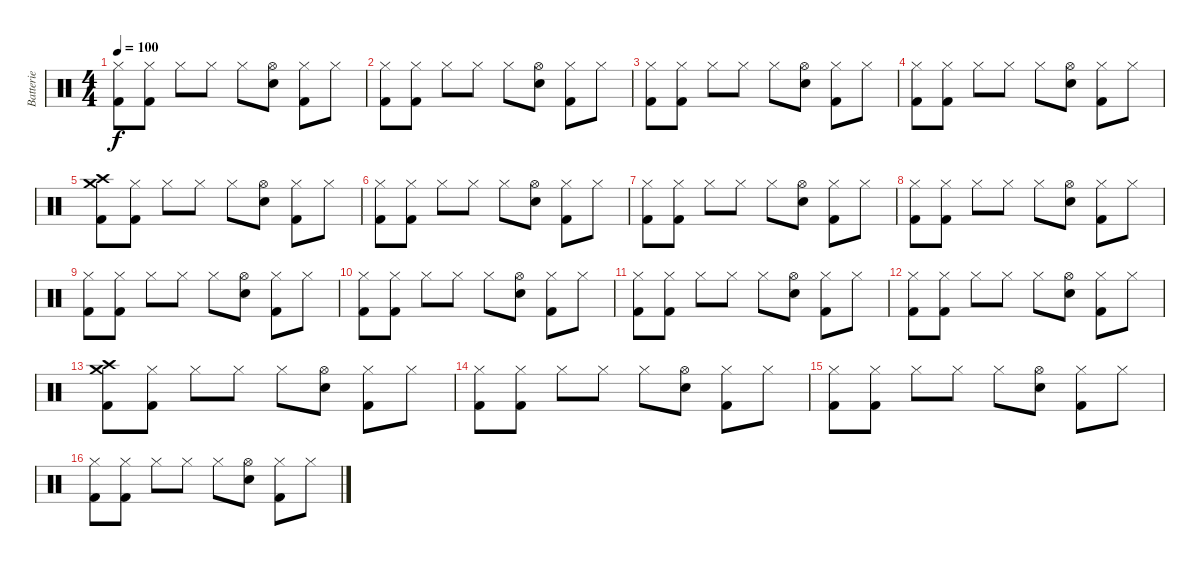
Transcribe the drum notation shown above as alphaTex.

\track ("Batterie" "Batterie") {instrument percussion}
\staff {score}
\articulation defaults
\ts (4 4)
\tempo 100
\clef neutral
\ks c
("Hi-Hat (closed)" "Kick (hit) 2").8{dy f} ("Hi-Hat (closed)" "Kick (hit) 2").8 "Hi-Hat (closed)".8 "Hi-Hat (closed)".8 "Hi-Hat (closed)".8 ("Hi-Hat (open)" "Snare (hit) 2").8 ("Hi-Hat (closed)" "Kick (hit) 2").8 "Hi-Hat (closed)".8 |
("Hi-Hat (closed)" "Kick (hit) 2").8 ("Hi-Hat (closed)" "Kick (hit) 2").8 "Hi-Hat (closed)".8 "Hi-Hat (closed)".8 "Hi-Hat (closed)".8 ("Hi-Hat (open)" "Snare (hit) 2").8 ("Hi-Hat (closed)" "Kick (hit) 2").8 "Hi-Hat (closed)".8 |
("Hi-Hat (closed)" "Kick (hit) 2").8 ("Hi-Hat (closed)" "Kick (hit) 2").8 "Hi-Hat (closed)".8 "Hi-Hat (closed)".8 "Hi-Hat (closed)".8 ("Hi-Hat (open)" "Snare (hit) 2").8 ("Hi-Hat (closed)" "Kick (hit) 2").8 "Hi-Hat (closed)".8 |
("Hi-Hat (closed)" "Kick (hit) 2").8 ("Hi-Hat (closed)" "Kick (hit) 2").8 "Hi-Hat (closed)".8 "Hi-Hat (closed)".8 "Hi-Hat (closed)".8 ("Hi-Hat (open)" "Snare (hit) 2").8 ("Hi-Hat (closed)" "Kick (hit) 2").8 "Hi-Hat (closed)".8 |
("Crash high (hit)" "Crash medium (hit)" "Kick (hit) 2").8 ("Hi-Hat (closed)" "Kick (hit) 2").8 "Hi-Hat (closed)".8 "Hi-Hat (closed)".8 "Hi-Hat (closed)".8 ("Hi-Hat (open)" "Snare (hit) 2").8 ("Hi-Hat (closed)" "Kick (hit) 2").8 "Hi-Hat (closed)".8 |
("Hi-Hat (closed)" "Kick (hit) 2").8 ("Hi-Hat (closed)" "Kick (hit) 2").8 "Hi-Hat (closed)".8 "Hi-Hat (closed)".8 "Hi-Hat (closed)".8 ("Hi-Hat (open)" "Snare (hit) 2").8 ("Hi-Hat (closed)" "Kick (hit) 2").8 "Hi-Hat (closed)".8 |
("Hi-Hat (closed)" "Kick (hit) 2").8 ("Hi-Hat (closed)" "Kick (hit) 2").8 "Hi-Hat (closed)".8 "Hi-Hat (closed)".8 "Hi-Hat (closed)".8 ("Hi-Hat (open)" "Snare (hit) 2").8 ("Hi-Hat (closed)" "Kick (hit) 2").8 "Hi-Hat (closed)".8 |
("Hi-Hat (closed)" "Kick (hit) 2").8 ("Hi-Hat (closed)" "Kick (hit) 2").8 "Hi-Hat (closed)".8 "Hi-Hat (closed)".8 "Hi-Hat (closed)".8 ("Hi-Hat (open)" "Snare (hit) 2").8 ("Hi-Hat (closed)" "Kick (hit) 2").8 "Hi-Hat (closed)".8 |
("Hi-Hat (closed)" "Kick (hit) 2").8 ("Hi-Hat (closed)" "Kick (hit) 2").8 "Hi-Hat (closed)".8 "Hi-Hat (closed)".8 "Hi-Hat (closed)".8 ("Hi-Hat (open)" "Snare (hit) 2").8 ("Hi-Hat (closed)" "Kick (hit) 2").8 "Hi-Hat (closed)".8 |
("Hi-Hat (closed)" "Kick (hit) 2").8 ("Hi-Hat (closed)" "Kick (hit) 2").8 "Hi-Hat (closed)".8 "Hi-Hat (closed)".8 "Hi-Hat (closed)".8 ("Hi-Hat (open)" "Snare (hit) 2").8 ("Hi-Hat (closed)" "Kick (hit) 2").8 "Hi-Hat (closed)".8 |
("Hi-Hat (closed)" "Kick (hit) 2").8 ("Hi-Hat (closed)" "Kick (hit) 2").8 "Hi-Hat (closed)".8 "Hi-Hat (closed)".8 "Hi-Hat (closed)".8 ("Hi-Hat (open)" "Snare (hit) 2").8 ("Hi-Hat (closed)" "Kick (hit) 2").8 "Hi-Hat (closed)".8 |
("Hi-Hat (closed)" "Kick (hit) 2").8 ("Hi-Hat (closed)" "Kick (hit) 2").8 "Hi-Hat (closed)".8 "Hi-Hat (closed)".8 "Hi-Hat (closed)".8 ("Hi-Hat (open)" "Snare (hit) 2").8 ("Hi-Hat (closed)" "Kick (hit) 2").8 "Hi-Hat (closed)".8 |
("Crash high (hit)" "Crash medium (hit)" "Kick (hit) 2").8 ("Hi-Hat (closed)" "Kick (hit) 2").8 "Hi-Hat (closed)".8 "Hi-Hat (closed)".8 "Hi-Hat (closed)".8 ("Hi-Hat (open)" "Snare (hit) 2").8 ("Hi-Hat (closed)" "Kick (hit) 2").8 "Hi-Hat (closed)".8 |
("Hi-Hat (closed)" "Kick (hit) 2").8 ("Hi-Hat (closed)" "Kick (hit) 2").8 "Hi-Hat (closed)".8 "Hi-Hat (closed)".8 "Hi-Hat (closed)".8 ("Hi-Hat (open)" "Snare (hit) 2").8 ("Hi-Hat (closed)" "Kick (hit) 2").8 "Hi-Hat (closed)".8 |
("Hi-Hat (closed)" "Kick (hit) 2").8 ("Hi-Hat (closed)" "Kick (hit) 2").8 "Hi-Hat (closed)".8 "Hi-Hat (closed)".8 "Hi-Hat (closed)".8 ("Hi-Hat (open)" "Snare (hit) 2").8 ("Hi-Hat (closed)" "Kick (hit) 2").8 "Hi-Hat (closed)".8 |
("Hi-Hat (closed)" "Kick (hit) 2").8 ("Hi-Hat (closed)" "Kick (hit) 2").8 "Hi-Hat (closed)".8 "Hi-Hat (closed)".8 "Hi-Hat (closed)".8 ("Hi-Hat (open)" "Snare (hit) 2").8 ("Hi-Hat (closed)" "Kick (hit) 2").8 "Hi-Hat (closed)".8
